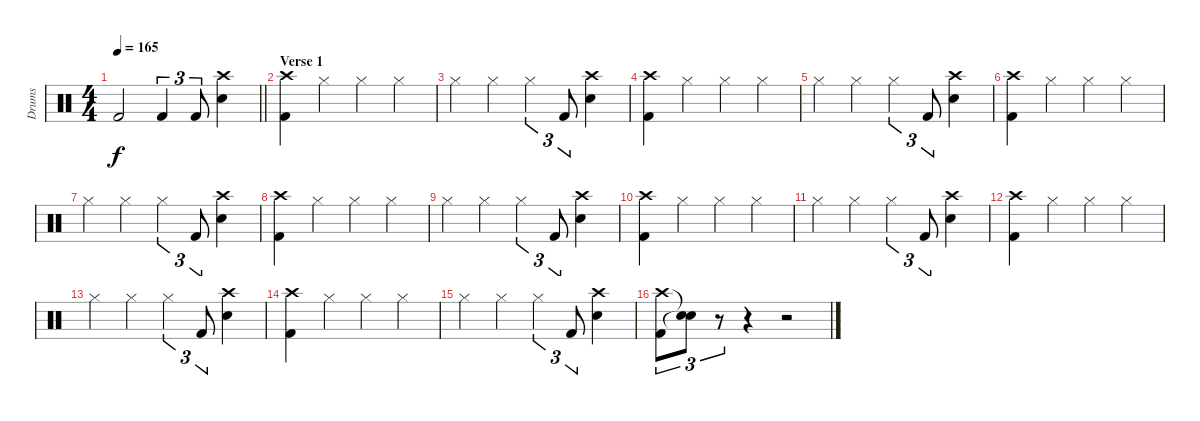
\track ("Drums" "Drums") {instrument percussion}
\staff {score}
\articulation defaults
\ts (4 4)
\tempo 165
\clef neutral
\barLineRight lightlight
\ks c "Kick (hit) 2".2{dy f} "Kick (hit) 2".4{tu (3 2)} "Kick (hit) 2".8{tu (3 2)}
("Snare (hit) 2" "Crash high (hit)").4 |
\section ("" "Verse 1")
("Kick (hit) 2" "Crash high (hit)").4 "Hi-Hat (closed)".4 "Hi-Hat (closed)".4 "Hi-Hat (closed)".4 |
"Hi-Hat (closed)".4 "Hi-Hat (closed)".4 "Hi-Hat (closed)".4{tu (3 2)} "Kick (hit) 2".8{tu (3 2)} ("Snare (hit) 2" "Crash high (hit)").4 |
("Kick (hit) 2" "Crash high (hit)").4 "Hi-Hat (closed)".4 "Hi-Hat (closed)".4 "Hi-Hat (closed)".4 |
"Hi-Hat (closed)".4 "Hi-Hat (closed)".4 "Hi-Hat (closed)".4{tu (3 2)} "Kick (hit) 2".8{tu (3 2)} ("Snare (hit) 2" "Crash high (hit)").4 |
("Kick (hit) 2" "Crash high (hit)").4 "Hi-Hat (closed)".4 "Hi-Hat (closed)".4 "Hi-Hat (closed)".4 |
"Hi-Hat (closed)".4 "Hi-Hat (closed)".4 "Hi-Hat (closed)".4{tu (3 2)} "Kick (hit) 2".8{tu (3 2)} ("Snare (hit) 2" "Crash high (hit)").4 |
("Kick (hit) 2" "Crash high (hit)").4 "Hi-Hat (closed)".4 "Hi-Hat (closed)".4 "Hi-Hat (closed)".4 |
"Hi-Hat (closed)".4 "Hi-Hat (closed)".4 "Hi-Hat (closed)".4{tu (3 2)} "Kick (hit) 2".8{tu (3 2)} ("Snare (hit) 2" "Crash high (hit)").4 |
("Kick (hit) 2" "Crash high (hit)").4 "Hi-Hat (closed)".4 "Hi-Hat (closed)".4 "Hi-Hat (closed)".4 |
"Hi-Hat (closed)".4 "Hi-Hat (closed)".4 "Hi-Hat (closed)".4{tu (3 2)} "Kick (hit) 2".8{tu (3 2)} ("Snare (hit) 2" "Crash high (hit)").4 |
("Kick (hit) 2" "Crash high (hit)").4 "Hi-Hat (closed)".4 "Hi-Hat (closed)".4 "Hi-Hat (closed)".4 |
"Hi-Hat (closed)".4 "Hi-Hat (closed)".4 "Hi-Hat (closed)".4{tu (3 2)} "Kick (hit) 2".8{tu (3 2)} ("Snare (hit) 2" "Crash high (hit)").4 |
("Kick (hit) 2" "Crash high (hit)").4 "Hi-Hat (closed)".4 "Hi-Hat (closed)".4 "Hi-Hat (closed)".4 |
"Hi-Hat (closed)".4 "Hi-Hat (closed)".4 "Hi-Hat (closed)".4{tu (3 2)} "Kick (hit) 2".8{tu (3 2)} ("Snare (hit) 2" "Crash high (hit)").4 |
("Kick (hit) 2" "Crash high (hit)").8{tu (3 2)} ("Snare (hit)"{t} "Snare (hit)"{t}).8{tu (3 2)} r.8{tu (3 2)} r.4 r.2
